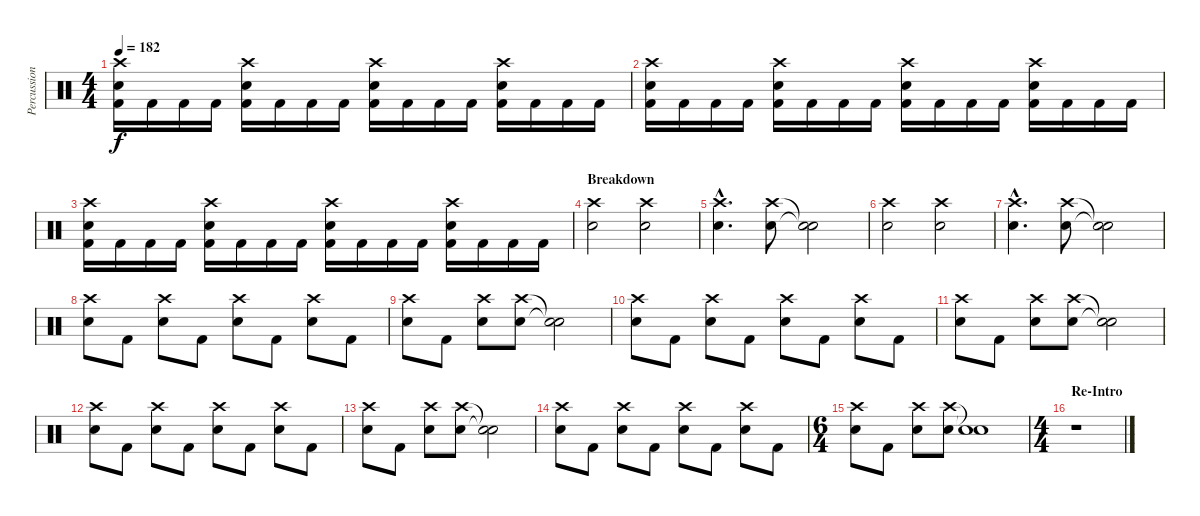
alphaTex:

\track ("Percussion" "Percussion") {instrument percussion}
\staff {score}
\articulation defaults
\ts (4 4)
\tempo 182
\clef neutral
\ks c
("Crash high (hit)" "Snare (hit) 2" "Kick (hit) 2").16{dy f} "Kick (hit) 2".16 "Kick (hit) 2".16 "Kick (hit) 2".16 ("Crash high (hit)" "Snare (hit) 2" "Kick (hit) 2").16 "Kick (hit) 2".16 "Kick (hit) 2".16 "Kick (hit) 2".16 ("Crash high (hit)" "Snare (hit) 2" "Kick (hit) 2").16 "Kick (hit) 2".16 "Kick (hit) 2".16 "Kick (hit) 2".16 ("Crash high (hit)" "Snare (hit) 2" "Kick (hit) 2").16 "Kick (hit) 2".16 "Kick (hit) 2".16 "Kick (hit) 2".16 |
("Crash high (hit)" "Snare (hit) 2" "Kick (hit) 2").16 "Kick (hit) 2".16 "Kick (hit) 2".16 "Kick (hit) 2".16 ("Crash high (hit)" "Snare (hit) 2" "Kick (hit) 2").16 "Kick (hit) 2".16 "Kick (hit) 2".16 "Kick (hit) 2".16 ("Crash high (hit)" "Snare (hit) 2" "Kick (hit) 2").16 "Kick (hit) 2".16 "Kick (hit) 2".16 "Kick (hit) 2".16 ("Crash high (hit)" "Snare (hit) 2" "Kick (hit) 2").16 "Kick (hit) 2".16 "Kick (hit) 2".16 "Kick (hit) 2".16 |
("Crash high (hit)" "Snare (hit) 2" "Kick (hit) 2").16 "Kick (hit) 2".16 "Kick (hit) 2".16 "Kick (hit) 2".16 ("Crash high (hit)" "Snare (hit) 2" "Kick (hit) 2").16 "Kick (hit) 2".16 "Kick (hit) 2".16 "Kick (hit) 2".16 ("Crash high (hit)" "Snare (hit) 2" "Kick (hit) 2").16 "Kick (hit) 2".16 "Kick (hit) 2".16 "Kick (hit) 2".16 ("Crash high (hit)" "Snare (hit) 2" "Kick (hit) 2").16 "Kick (hit) 2".16 "Kick (hit) 2".16 "Kick (hit) 2".16 |
\section ("" "Breakdown")
("Crash high (hit)" "Snare (hit) 2").2 ("Crash high (hit)" "Snare (hit) 2").2 |
("Crash high (hit)"{hac} "Snare (hit) 2"{hac}).4{d} ("Crash high (hit)" "Snare (hit) 2").8 ("Snare (hit)"{t} "Snare (hit)"{t}).2 |
("Crash high (hit)" "Snare (hit) 2").2 ("Crash high (hit)" "Snare (hit) 2").2 |
("Crash high (hit)"{hac} "Snare (hit) 2"{hac}).4{d} ("Crash high (hit)" "Snare (hit) 2").8 ("Snare (hit)"{t} "Snare (hit)"{t}).2 |
("Crash high (hit)" "Snare (hit) 2").8 "Kick (hit) 2".8 ("Crash high (hit)" "Snare (hit) 2").8 "Kick (hit) 2".8 ("Crash high (hit)" "Snare (hit) 2").8 "Kick (hit) 2".8 ("Crash high (hit)" "Snare (hit) 2").8 "Kick (hit) 2".8 |
("Crash high (hit)" "Snare (hit) 2").8 "Kick (hit) 2".8 ("Crash high (hit)" "Snare (hit) 2").8 ("Crash high (hit)" "Snare (hit) 2").8 ("Snare (hit)"{t} "Snare (hit)"{t}).2 |
("Crash high (hit)" "Snare (hit) 2").8 "Kick (hit) 2".8 ("Crash high (hit)" "Snare (hit) 2").8 "Kick (hit) 2".8 ("Crash high (hit)" "Snare (hit) 2").8 "Kick (hit) 2".8 ("Crash high (hit)" "Snare (hit) 2").8 "Kick (hit) 2".8 |
("Crash high (hit)" "Snare (hit) 2").8 "Kick (hit) 2".8 ("Crash high (hit)" "Snare (hit) 2").8 ("Crash high (hit)" "Snare (hit) 2").8 ("Snare (hit)"{t} "Snare (hit)"{t}).2 |
("Crash high (hit)" "Snare (hit) 2").8 "Kick (hit) 2".8 ("Crash high (hit)" "Snare (hit) 2").8 "Kick (hit) 2".8 ("Crash high (hit)" "Snare (hit) 2").8 "Kick (hit) 2".8 ("Crash high (hit)" "Snare (hit) 2").8 "Kick (hit) 2".8 |
("Crash high (hit)" "Snare (hit) 2").8 "Kick (hit) 2".8 ("Crash high (hit)" "Snare (hit) 2").8 ("Crash high (hit)" "Snare (hit) 2").8 ("Snare (hit)"{t} "Snare (hit)"{t}).2 |
("Crash high (hit)" "Snare (hit) 2").8 "Kick (hit) 2".8 ("Crash high (hit)" "Snare (hit) 2").8 "Kick (hit) 2".8 ("Crash high (hit)" "Snare (hit) 2").8 "Kick (hit) 2".8 ("Crash high (hit)" "Snare (hit) 2").8 "Kick (hit) 2".8 |
\ts (6 4)
("Crash high (hit)" "Snare (hit) 2").8 "Kick (hit) 2".8 ("Crash high (hit)" "Snare (hit) 2").8 ("Crash high (hit)" "Snare (hit) 2").8 ("Snare (hit)"{t} "Snare (hit)"{t}).1 |
\ts (4 4)
\section ("" "Re-Intro")
r.1
